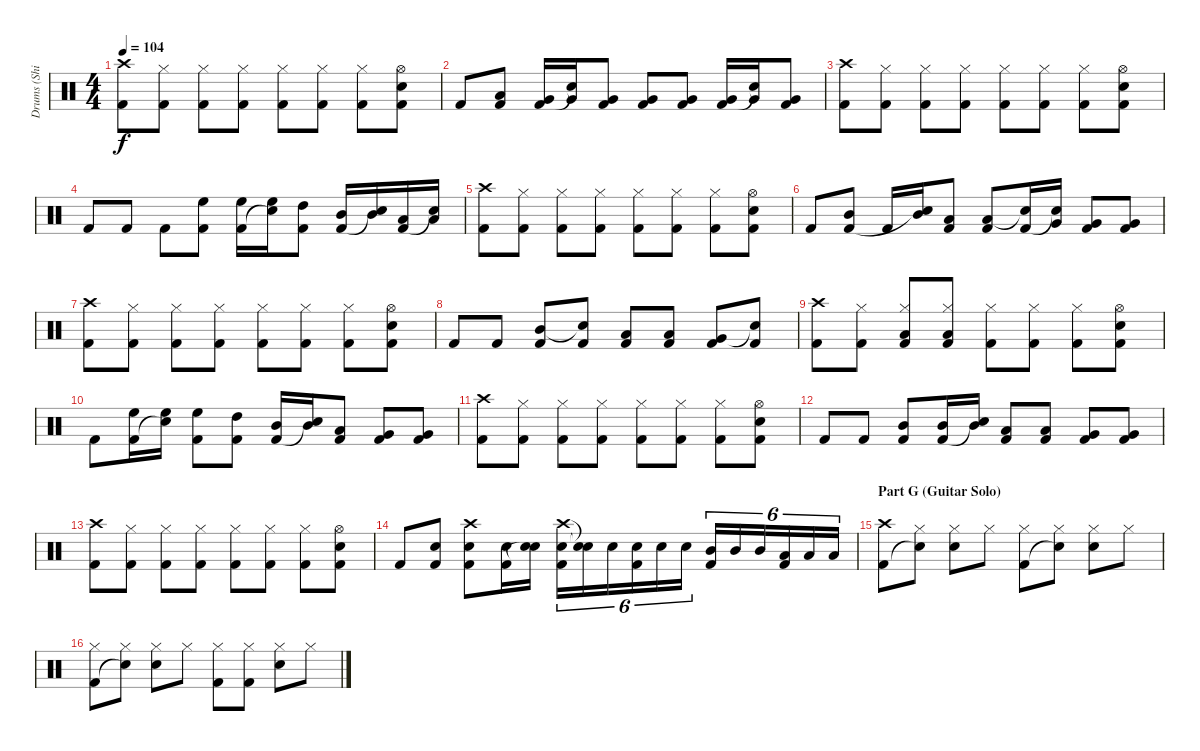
\track ("Drums (Shinya)" "Drums (Shi") {instrument percussion}
\staff {score}
\articulation defaults
\ts (4 4)
\tempo 104
\clef neutral
\ks c
("Crash high (hit)" "Kick (hit) 2").8{dy f} ("Hi-Hat (closed)" "Kick (hit) 2").8 ("Hi-Hat (closed)" "Kick (hit) 2").8 ("Hi-Hat (closed)" "Kick (hit) 2").8 ("Hi-Hat (closed)" "Kick (hit) 2").8 ("Hi-Hat (closed)" "Kick (hit) 2").8 ("Hi-Hat (closed)" "Kick (hit) 2").8 ("Hi-Hat (open)" "Electric Snare (hit)" "Kick (hit) 2").8 |
"Kick (hit) 2".8 ("Low Tom (hit)" "Kick (hit) 2").8 ("Very Low Tom (hit)" "Kick (hit) 2").16 ("Very Low Tom (hit)" "Snare (hit)"{t}).16 ("Very Low Tom (hit)" "Kick (hit) 2").8 ("Very Low Tom (hit)" "Kick (hit) 2").8 ("Very Low Tom (hit)" "Kick (hit) 2").8 ("Very Low Tom (hit)" "Kick (hit) 2").16 ("Very Low Tom (hit)" "Snare (hit)"{t}).16 ("Very Low Tom (hit)" "Kick (hit) 2").8 |
("Crash high (hit)" "Kick (hit) 2").8 ("Hi-Hat (closed)" "Kick (hit) 2").8 ("Hi-Hat (closed)" "Kick (hit) 2").8 ("Hi-Hat (closed)" "Kick (hit) 2").8 ("Hi-Hat (closed)" "Kick (hit) 2").8 ("Hi-Hat (closed)" "Kick (hit) 2").8 ("Hi-Hat (closed)" "Kick (hit) 2").8 ("Hi-Hat (open)" "Electric Snare (hit)" "Kick (hit) 2").8 |
"Kick (hit) 2".8 "Kick (hit) 2".8 "Kick (hit) 2".8 ("High Floor Tom (hit)" "Kick (hit) 2").8 ("High Floor Tom (hit)" "Kick (hit) 2").16 ("High Floor Tom (hit)" "Snare (hit)"{t}).16 ("High Tom (hit)" "Kick (hit) 2").8 ("Mid Tom (hit)" "Kick (hit) 2").16 ("Mid Tom (hit)" "Snare (hit)"{t}).16 ("Low Tom (hit)" "Kick (hit) 2").16 ("Low Tom (hit)" "Snare (hit)"{t}).16 |
("Crash high (hit)" "Kick (hit) 2").8 ("Hi-Hat (closed)" "Kick (hit) 2").8 ("Hi-Hat (closed)" "Kick (hit) 2").8 ("Hi-Hat (closed)" "Kick (hit) 2").8 ("Hi-Hat (closed)" "Kick (hit) 2").8 ("Hi-Hat (closed)" "Kick (hit) 2").8 ("Hi-Hat (closed)" "Kick (hit) 2").8 ("Hi-Hat (open)" "Electric Snare (hit)" "Kick (hit) 2").8 |
"Kick (hit) 2".8 ("Mid Tom (hit)" "Kick (hit) 2").8 "Kick (hit) 2".16 ("Mid Tom (hit)" "Snare (hit)"{t}).16 ("Low Tom (hit)" "Kick (hit) 2").8 ("Low Tom (hit)" "Kick (hit) 2").8 ("Snare (hit)"{t} "Kick (hit) 2").16 ("Very Low Tom (hit)" "Snare (hit)"{t}).16 ("Very Low Tom (hit)" "Kick (hit) 2").8 ("Very Low Tom (hit)" "Kick (hit) 2").8 |
("Crash high (hit)" "Kick (hit) 2").8 ("Hi-Hat (closed)" "Kick (hit) 2").8 ("Hi-Hat (closed)" "Kick (hit) 2").8 ("Hi-Hat (closed)" "Kick (hit) 2").8 ("Hi-Hat (closed)" "Kick (hit) 2").8 ("Hi-Hat (closed)" "Kick (hit) 2").8 ("Hi-Hat (closed)" "Kick (hit) 2").8 ("Hi-Hat (open)" "Electric Snare (hit)" "Kick (hit) 2").8 |
"Kick (hit) 2".8 "Kick (hit) 2".8 ("Mid Tom (hit)" "Kick (hit) 2").8 ("Snare (hit)"{t} "Kick (hit) 2").8 ("Low Tom (hit)" "Kick (hit) 2").8 ("Low Tom (hit)" "Kick (hit) 2").8 ("Very Low Tom (hit)" "Kick (hit) 2").8 ("Snare (hit)"{t} "Kick (hit) 2").8 |
("Crash high (hit)" "Kick (hit) 2").8 ("Hi-Hat (closed)" "Kick (hit) 2").8 ("Hi-Hat (closed)" "Low Tom (hit)" "Kick (hit) 2").8 ("Hi-Hat (closed)" "Low Tom (hit)" "Kick (hit) 2").8 ("Hi-Hat (closed)" "Kick (hit) 2").8 ("Hi-Hat (closed)" "Kick (hit) 2").8 ("Hi-Hat (closed)" "Kick (hit) 2").8 ("Hi-Hat (open)" "Electric Snare (hit)" "Kick (hit) 2").8 |
"Kick (hit) 2".8 ("High Floor Tom (hit)" "Kick (hit) 2").16 ("High Floor Tom (hit)" "Snare (hit)"{t}).16 ("High Floor Tom (hit)" "Kick (hit) 2").8 ("High Tom (hit)" "Kick (hit) 2").8 ("Mid Tom (hit)" "Kick (hit) 2").16 ("Mid Tom (hit)" "Snare (hit)"{t}).16 ("Low Tom (hit)" "Kick (hit) 2").8 ("Very Low Tom (hit)" "Kick (hit) 2").8 ("Very Low Tom (hit)" "Kick (hit) 2").8 |
("Crash high (hit)" "Kick (hit) 2").8 ("Hi-Hat (closed)" "Kick (hit) 2").8 ("Hi-Hat (closed)" "Kick (hit) 2").8 ("Hi-Hat (closed)" "Kick (hit) 2").8 ("Hi-Hat (closed)" "Kick (hit) 2").8 ("Hi-Hat (closed)" "Kick (hit) 2").8 ("Hi-Hat (closed)" "Kick (hit) 2").8 ("Hi-Hat (open)" "Electric Snare (hit)" "Kick (hit) 2").8 |
"Kick (hit) 2".8 "Kick (hit) 2".8 ("Mid Tom (hit)" "Kick (hit) 2").8 ("Mid Tom (hit)" "Kick (hit) 2").16 ("Mid Tom (hit)" "Snare (hit)"{t}).16 ("Low Tom (hit)" "Kick (hit) 2").8 ("Low Tom (hit)" "Kick (hit) 2").8 ("Very Low Tom (hit)" "Kick (hit) 2").8 ("Very Low Tom (hit)" "Kick (hit) 2").8 |
("Crash high (hit)" "Kick (hit) 2").8 ("Hi-Hat (closed)" "Kick (hit) 2").8 ("Hi-Hat (closed)" "Kick (hit) 2").8 ("Hi-Hat (closed)" "Kick (hit) 2").8 ("Hi-Hat (closed)" "Kick (hit) 2").8 ("Hi-Hat (closed)" "Kick (hit) 2").8 ("Hi-Hat (closed)" "Kick (hit) 2").8 ("Hi-Hat (open)" "Electric Snare (hit)" "Kick (hit) 2").8 |
"Kick (hit) 2".8 ("Electric Snare (hit)" "Kick (hit) 2").8 ("Crash high (hit)" "Electric Snare (hit)" "Kick (hit) 2").8 ("Electric Snare (hit)" "Kick (hit) 2").16 ("Electric Snare (hit)" "Snare (hit)"{t}).16 ("Crash high (hit)" "Electric Snare (hit)" "Kick (hit) 2").16{tu (6 4)} ("Snare (hit)"{t} "Snare (hit)"{t}).16{tu (6 4)} "Electric Snare (hit)".16{tu (6 4)} ("Electric Snare (hit)" "Kick (hit) 2").16{tu (6 4)} "Electric Snare (hit)".16{tu (6 4)} "Electric Snare (hit)".16{tu (6 4)} ("Mid Tom (hit)" "Kick (hit) 2").16{tu (6 4)} "Mid Tom (hit)".16{tu (6 4)} "Mid Tom (hit)".16{tu (6 4)} ("Low Tom (hit)" "Kick (hit) 2").16{tu (6 4)} "Low Tom (hit)".16{tu (6 4)} "Low Tom (hit)".16{tu (6 4)} |
\section ("" "Part G (Guitar Solo)")
("Crash high (hit)" "Kick (hit) 2").8 ("Hi-Hat (closed)" "Snare (hit)"{t}).8 ("Hi-Hat (closed)" "Electric Snare (hit)").8 "Hi-Hat (closed)".8 ("Hi-Hat (closed)" "Kick (hit) 2").8 ("Hi-Hat (closed)" "Snare (hit)"{t}).8 ("Hi-Hat (closed)" "Electric Snare (hit)").8 "Hi-Hat (closed)".8 |
("Hi-Hat (closed)" "Kick (hit) 2").8 ("Hi-Hat (closed)" "Snare (hit)"{t}).8 ("Hi-Hat (closed)" "Electric Snare (hit)").8 "Hi-Hat (closed)".8 ("Hi-Hat (closed)" "Kick (hit) 2").8 ("Hi-Hat (closed)" "Kick (hit) 2").8 ("Hi-Hat (closed)" "Electric Snare (hit)").8 "Hi-Hat (closed)".8
